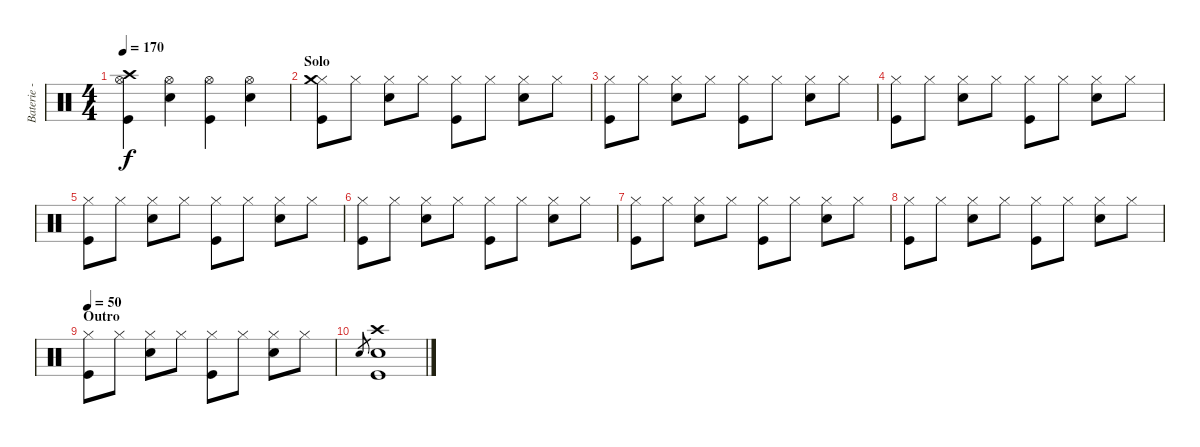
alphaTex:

\track ("Baterie - Alex" "Baterie - ") {instrument percussion}
\staff {score}
\articulation defaults
\ts (4 4)
\tempo 170
\clef neutral
\ks c
("Hi-Hat (open)" "Crash high (hit)" "Kick (hit)").4{dy f} ("Hi-Hat (open)" "Electric Snare (hit)").4 ("Hi-Hat (open)" "Kick (hit)").4 ("Hi-Hat (open)" "Electric Snare (hit)").4 |
\section ("" "Solo")
("Hi-Hat (closed)" "Crash medium (hit)" "Kick (hit)").8 "Hi-Hat (closed)".8 ("Hi-Hat (closed)" "Electric Snare (hit)").8 "Hi-Hat (closed)".8 ("Hi-Hat (closed)" "Kick (hit)").8 "Hi-Hat (closed)".8 ("Hi-Hat (closed)" "Electric Snare (hit)").8 "Hi-Hat (closed)".8 |
("Hi-Hat (closed)" "Kick (hit)").8 "Hi-Hat (closed)".8 ("Hi-Hat (closed)" "Electric Snare (hit)").8 "Hi-Hat (closed)".8 ("Hi-Hat (closed)" "Kick (hit)").8 "Hi-Hat (closed)".8 ("Hi-Hat (closed)" "Electric Snare (hit)").8 "Hi-Hat (closed)".8 |
("Hi-Hat (closed)" "Kick (hit)").8 "Hi-Hat (closed)".8 ("Hi-Hat (closed)" "Electric Snare (hit)").8 "Hi-Hat (closed)".8 ("Hi-Hat (closed)" "Kick (hit)").8 "Hi-Hat (closed)".8 ("Hi-Hat (closed)" "Electric Snare (hit)").8 "Hi-Hat (closed)".8 |
("Hi-Hat (closed)" "Kick (hit)").8 "Hi-Hat (closed)".8 ("Hi-Hat (closed)" "Electric Snare (hit)").8 "Hi-Hat (closed)".8 ("Hi-Hat (closed)" "Kick (hit)").8 "Hi-Hat (closed)".8 ("Hi-Hat (closed)" "Electric Snare (hit)").8 "Hi-Hat (closed)".8 |
("Hi-Hat (closed)" "Kick (hit)").8 "Hi-Hat (closed)".8 ("Hi-Hat (closed)" "Electric Snare (hit)").8 "Hi-Hat (closed)".8 ("Hi-Hat (closed)" "Kick (hit)").8 "Hi-Hat (closed)".8 ("Hi-Hat (closed)" "Electric Snare (hit)").8 "Hi-Hat (closed)".8 |
("Hi-Hat (closed)" "Kick (hit)").8 "Hi-Hat (closed)".8 ("Hi-Hat (closed)" "Electric Snare (hit)").8 "Hi-Hat (closed)".8 ("Hi-Hat (closed)" "Kick (hit)").8 "Hi-Hat (closed)".8 ("Hi-Hat (closed)" "Electric Snare (hit)").8 "Hi-Hat (closed)".8 |
("Hi-Hat (closed)" "Kick (hit)").8 "Hi-Hat (closed)".8 ("Hi-Hat (closed)" "Electric Snare (hit)").8 "Hi-Hat (closed)".8 ("Hi-Hat (closed)" "Kick (hit)").8 "Hi-Hat (closed)".8 ("Hi-Hat (closed)" "Electric Snare (hit)").8 "Hi-Hat (closed)".8 |
\section ("" "Outro")
\tempo 50
("Hi-Hat (closed)" "Kick (hit)").8 "Hi-Hat (closed)".8 ("Hi-Hat (closed)" "Electric Snare (hit)").8 "Hi-Hat (closed)".8 ("Hi-Hat (closed)" "Kick (hit)").8 "Hi-Hat (closed)".8 ("Hi-Hat (closed)" "Electric Snare (hit)").8 "Hi-Hat (closed)".8 |
"Electric Snare (hit)".8{gr} ("Crash high (hit)" "Electric Snare (hit)" "Kick (hit)").1
